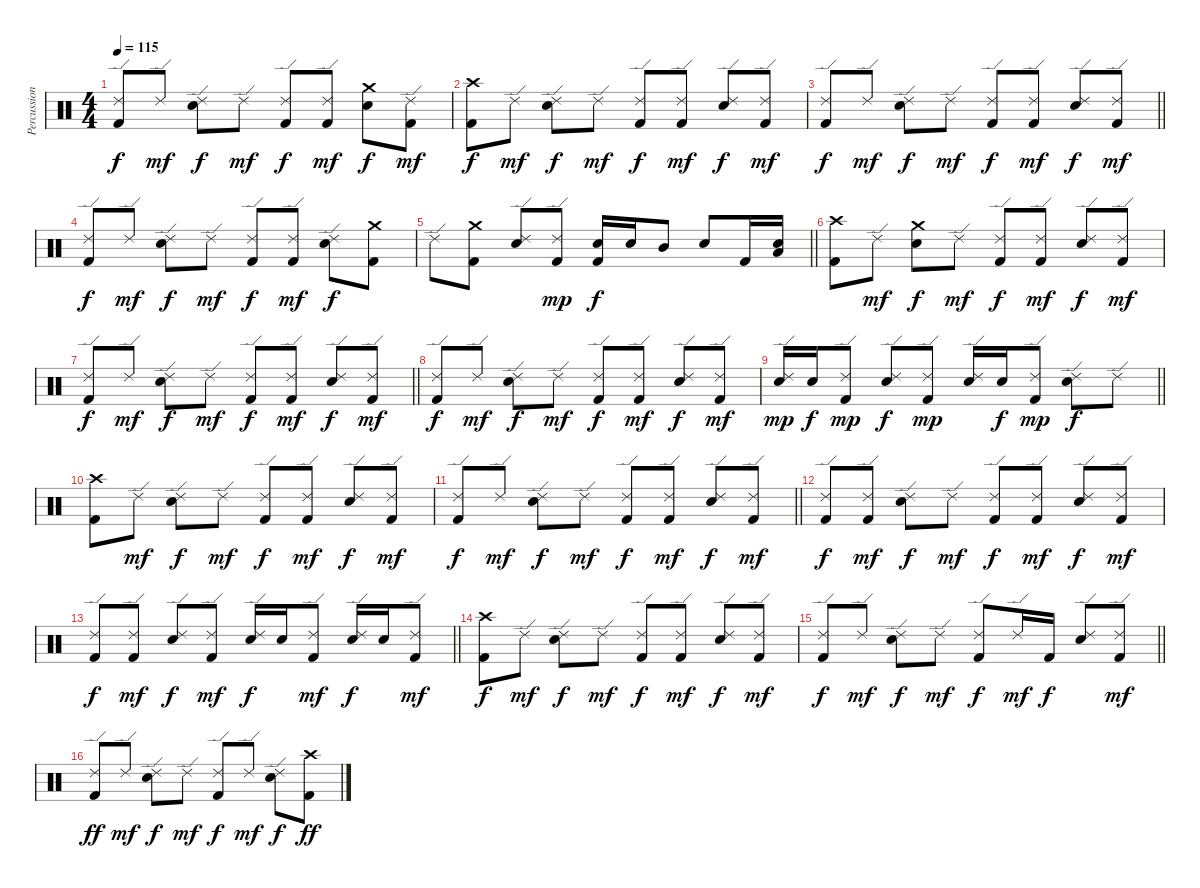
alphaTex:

\track ("Percussion" "Percussion") {instrument percussion}
\staff {score}
\articulation defaults
\ts (4 4)
\tempo 115
\clef neutral
\ks c
("Ride (edge) 2" "Kick (hit) 2").8{dy f} "Ride (edge) 2".8{dy mf} ("Ride (edge) 2" "Electric Snare (hit)").8{dy f} "Ride (edge) 2".8{dy mf} ("Ride (edge) 2" "Kick (hit) 2").8{dy f} ("Ride (edge) 2" "Kick (hit) 2").8{dy mf} ("Crash medium (hit)" "Electric Snare (hit)").8{dy f} ("Ride (edge) 2" "Kick (hit) 2").8{dy mf} |
("Crash high (hit)" "Kick (hit) 2").8{dy f} "Ride (edge) 2".8{dy mf} ("Ride (edge) 2" "Electric Snare (hit)").8{dy f} "Ride (edge) 2".8{dy mf} ("Ride (edge) 2" "Kick (hit) 2").8{dy f} ("Ride (edge) 2" "Kick (hit) 2").8{dy mf} ("Ride (edge) 2" "Electric Snare (hit)").8{dy f} ("Ride (edge) 2" "Kick (hit) 2").8{dy mf} |
\barLineRight lightlight
("Ride (edge) 2" "Kick (hit) 2").8{dy f} "Ride (edge) 2".8{dy mf} ("Ride (edge) 2" "Electric Snare (hit)").8{dy f} "Ride (edge) 2".8{dy mf} ("Ride (edge) 2" "Kick (hit) 2").8{dy f} ("Ride (edge) 2" "Kick (hit) 2").8{dy mf} ("Ride (edge) 2" "Electric Snare (hit)").8{dy f} ("Ride (edge) 2" "Kick (hit) 2").8{dy mf} |
("Ride (edge) 2" "Kick (hit) 2").8{dy f} "Ride (edge) 2".8{dy mf} ("Ride (edge) 2" "Electric Snare (hit)").8{dy f} "Ride (edge) 2".8{dy mf} ("Ride (edge) 2" "Kick (hit) 2").8{dy f} ("Ride (edge) 2" "Kick (hit) 2").8{dy mf} ("Ride (edge) 2" "Electric Snare (hit)").8{dy f} ("Crash medium (hit)" "Kick (hit) 2").8 |
\barLineRight lightlight "Ride (edge) 2".8
("Crash medium (hit)" "Kick (hit) 2").8 ("Ride (edge) 2" "Electric Snare (hit)").8 ("Ride (edge) 2" "Kick (hit) 2").8{dy mp} ("Electric Snare (hit)" "Kick (hit) 2").16{dy f} "Electric Snare (hit)".16 "Mid Tom (hit)".8 "Snare (hit) 2".8 "Kick (hit) 2".16 ("Low Floor Tom (hit)" "Electric Snare (hit)").16 |
("Crash high (hit)" "Kick (hit) 2").8 "Ride (edge) 2".8{dy mf} ("Crash medium (hit)" "Electric Snare (hit)").8{dy f} "Ride (edge) 2".8{dy mf} ("Ride (edge) 2" "Kick (hit) 2").8{dy f} ("Ride (edge) 2" "Kick (hit) 2").8{dy mf} ("Ride (edge) 2" "Electric Snare (hit)").8{dy f} ("Ride (edge) 2" "Kick (hit) 2").8{dy mf} |
\barLineRight lightlight
("Ride (edge) 2" "Kick (hit) 2").8{dy f} "Ride (edge) 2".8{dy mf} ("Ride (edge) 2" "Electric Snare (hit)").8{dy f} "Ride (edge) 2".8{dy mf} ("Ride (edge) 2" "Kick (hit) 2").8{dy f} ("Ride (edge) 2" "Kick (hit) 2").8{dy mf} ("Ride (edge) 2" "Electric Snare (hit)").8{dy f} ("Ride (edge) 2" "Kick (hit) 2").8{dy mf} |
("Ride (edge) 2" "Kick (hit) 2").8{dy f} "Ride (edge) 2".8{dy mf} ("Ride (edge) 2" "Electric Snare (hit)").8{dy f} "Ride (edge) 2".8{dy mf} ("Ride (edge) 2" "Kick (hit) 2").8{dy f} ("Ride (edge) 2" "Kick (hit) 2").8{dy mf} ("Ride (edge) 2" "Electric Snare (hit)").8{dy f} ("Ride (edge) 2" "Kick (hit) 2").8{dy mf} |
\barLineRight lightlight
("Ride (edge) 2" "Electric Snare (hit)").16{dy mp} "Electric Snare (hit)".16{dy f} ("Ride (edge) 2" "Kick (hit) 2").8{dy mp} ("Ride (edge) 2" "Electric Snare (hit)").8{dy f} ("Ride (edge) 2" "Kick (hit) 2").8{dy mp} ("Ride (edge) 2" "Electric Snare (hit)").16 "Electric Snare (hit)".16{dy f} ("Ride (edge) 2" "Kick (hit) 2").8{dy mp} ("Ride (edge) 2" "Electric Snare (hit)").8{dy f} "Ride (edge) 2".8 |
("Crash high (hit)" "Kick (hit) 2").8 "Ride (edge) 2".8{dy mf} ("Ride (edge) 2" "Electric Snare (hit)").8{dy f} "Ride (edge) 2".8{dy mf} ("Ride (edge) 2" "Kick (hit) 2").8{dy f} ("Ride (edge) 2" "Kick (hit) 2").8{dy mf} ("Ride (edge) 2" "Electric Snare (hit)").8{dy f} ("Ride (edge) 2" "Kick (hit) 2").8{dy mf} |
\barLineRight lightlight
("Ride (edge) 2" "Kick (hit) 2").8{dy f} "Ride (edge) 2".8{dy mf} ("Ride (edge) 2" "Electric Snare (hit)").8{dy f} "Ride (edge) 2".8{dy mf} ("Ride (edge) 2" "Kick (hit) 2").8{dy f} ("Ride (edge) 2" "Kick (hit) 2").8{dy mf} ("Ride (edge) 2" "Electric Snare (hit)").8{dy f} ("Ride (edge) 2" "Kick (hit) 2").8{dy mf} |
("Ride (edge) 2" "Kick (hit) 2").8{dy f} ("Ride (edge) 2" "Kick (hit) 2").8{dy mf} ("Ride (edge) 2" "Electric Snare (hit)").8{dy f} "Ride (edge) 2".8{dy mf} ("Ride (edge) 2" "Kick (hit) 2").8{dy f} ("Ride (edge) 2" "Kick (hit) 2").8{dy mf} ("Ride (edge) 2" "Electric Snare (hit)").8{dy f} ("Ride (edge) 2" "Kick (hit) 2").8{dy mf} |
\barLineRight lightlight
("Ride (edge) 2" "Kick (hit) 2").8{dy f} ("Ride (edge) 2" "Kick (hit) 2").8{dy mf} ("Ride (edge) 2" "Electric Snare (hit)").8{dy f} ("Ride (edge) 2" "Kick (hit) 2").8{dy mf} ("Ride (edge) 2" "Electric Snare (hit)").16{dy f} "Electric Snare (hit)".16 ("Ride (edge) 2" "Kick (hit) 2").8{dy mf} ("Ride (edge) 2" "Electric Snare (hit)").16{dy f} "Electric Snare (hit)".16 ("Ride (edge) 2" "Kick (hit) 2").8{dy mf} |
("Crash high (hit)" "Kick (hit) 2").8{dy f} "Ride (edge) 2".8{dy mf} ("Ride (edge) 2" "Electric Snare (hit)").8{dy f} "Ride (edge) 2".8{dy mf} ("Ride (edge) 2" "Kick (hit) 2").8{dy f} ("Ride (edge) 2" "Kick (hit) 2").8{dy mf} ("Ride (edge) 2" "Electric Snare (hit)").8{dy f} ("Ride (edge) 2" "Kick (hit) 2").8{dy mf} |
\barLineRight lightlight
("Ride (edge) 2" "Kick (hit) 2").8{dy f} "Ride (edge) 2".8{dy mf} ("Ride (edge) 2" "Electric Snare (hit)").8{dy f} "Ride (edge) 2".8{dy mf} ("Ride (edge) 2" "Kick (hit) 2").8{dy f} "Ride (edge) 2".16{dy mf} "Kick (hit) 2".16{dy f} ("Ride (edge) 2" "Electric Snare (hit)").8 ("Ride (edge) 2" "Kick (hit) 2").8{dy mf} |
("Ride (edge) 2" "Kick (hit) 2").8{dy ff} "Ride (edge) 2".8{dy mf} ("Ride (edge) 2" "Electric Snare (hit)").8{dy f} "Ride (edge) 2".8{dy mf} ("Ride (edge) 2" "Kick (hit) 2").8{dy f} "Ride (edge) 2".8{dy mf} ("Ride (edge) 2" "Electric Snare (hit)").8{dy f} ("Crash high (hit)" "Kick (hit) 2").8{dy ff}
